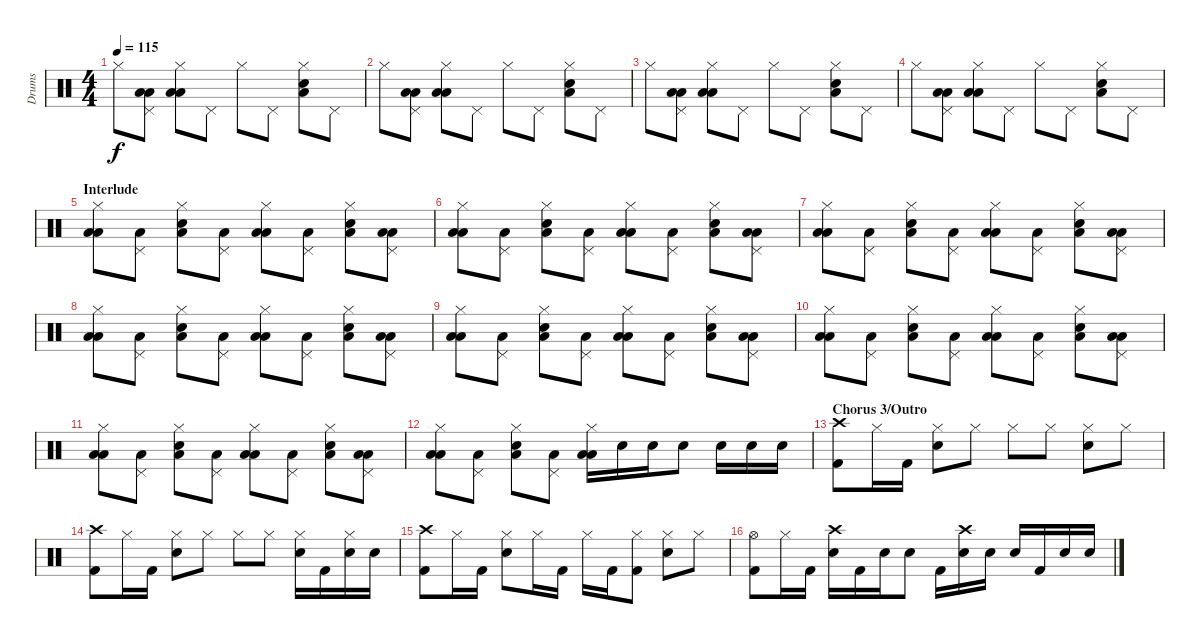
\track ("Drums" "Drums") {instrument percussion}
\staff {score}
\articulation defaults
\ts (4 4)
\tempo 115
\clef neutral
\ks c "Hi-Hat (closed)".8{dy f}
("Pedal Hi-Hat (hit)" "Low Tom (hit)" "Low Floor Tom (hit)").8 ("Hi-Hat (closed)" "Low Tom (hit)" "Low Floor Tom (hit)").8 "Pedal Hi-Hat (hit)".8 "Hi-Hat (closed)".8 "Pedal Hi-Hat (hit)".8 ("Hi-Hat (closed)" "Electric Snare (hit)" "Low Floor Tom (hit)").8 "Pedal Hi-Hat (hit)".8 |
"Hi-Hat (closed)".8 ("Pedal Hi-Hat (hit)" "Low Tom (hit)" "Low Floor Tom (hit)").8 ("Hi-Hat (closed)" "Low Tom (hit)" "Low Floor Tom (hit)").8 "Pedal Hi-Hat (hit)".8 "Hi-Hat (closed)".8 "Pedal Hi-Hat (hit)".8 ("Hi-Hat (closed)" "Electric Snare (hit)" "Low Floor Tom (hit)").8 "Pedal Hi-Hat (hit)".8 |
"Hi-Hat (closed)".8 ("Pedal Hi-Hat (hit)" "Low Tom (hit)" "Low Floor Tom (hit)").8 ("Hi-Hat (closed)" "Low Tom (hit)" "Low Floor Tom (hit)").8 "Pedal Hi-Hat (hit)".8 "Hi-Hat (closed)".8 "Pedal Hi-Hat (hit)".8 ("Hi-Hat (closed)" "Electric Snare (hit)" "Low Floor Tom (hit)").8 "Pedal Hi-Hat (hit)".8 |
"Hi-Hat (closed)".8 ("Pedal Hi-Hat (hit)" "Low Tom (hit)" "Low Floor Tom (hit)").8 ("Hi-Hat (closed)" "Low Tom (hit)" "Low Floor Tom (hit)").8 "Pedal Hi-Hat (hit)".8 "Hi-Hat (closed)".8 "Pedal Hi-Hat (hit)".8 ("Hi-Hat (closed)" "Electric Snare (hit)" "Low Floor Tom (hit)").8 "Pedal Hi-Hat (hit)".8 |
\section ("" "Interlude")
("Hi-Hat (closed)" "Low Tom (hit)" "Low Floor Tom (hit)").8 ("Pedal Hi-Hat (hit)" "Low Floor Tom (hit)").8 ("Hi-Hat (closed)" "Electric Snare (hit)" "Low Floor Tom (hit)").8 ("Pedal Hi-Hat (hit)" "Low Floor Tom (hit)").8 ("Hi-Hat (closed)" "Low Tom (hit)" "Low Floor Tom (hit)").8 ("Pedal Hi-Hat (hit)" "Low Floor Tom (hit)").8 ("Hi-Hat (closed)" "Electric Snare (hit)" "Low Floor Tom (hit)").8 ("Pedal Hi-Hat (hit)" "Low Tom (hit)" "Low Floor Tom (hit)").8 |
("Hi-Hat (closed)" "Low Tom (hit)" "Low Floor Tom (hit)").8 ("Pedal Hi-Hat (hit)" "Low Floor Tom (hit)").8 ("Hi-Hat (closed)" "Electric Snare (hit)" "Low Floor Tom (hit)").8 ("Pedal Hi-Hat (hit)" "Low Floor Tom (hit)").8 ("Hi-Hat (closed)" "Low Tom (hit)" "Low Floor Tom (hit)").8 ("Pedal Hi-Hat (hit)" "Low Floor Tom (hit)").8 ("Hi-Hat (closed)" "Electric Snare (hit)" "Low Floor Tom (hit)").8 ("Pedal Hi-Hat (hit)" "Low Tom (hit)" "Low Floor Tom (hit)").8 |
("Hi-Hat (closed)" "Low Tom (hit)" "Low Floor Tom (hit)").8 ("Pedal Hi-Hat (hit)" "Low Floor Tom (hit)").8 ("Hi-Hat (closed)" "Electric Snare (hit)" "Low Floor Tom (hit)").8 ("Pedal Hi-Hat (hit)" "Low Floor Tom (hit)").8 ("Hi-Hat (closed)" "Low Tom (hit)" "Low Floor Tom (hit)").8 ("Pedal Hi-Hat (hit)" "Low Floor Tom (hit)").8 ("Hi-Hat (closed)" "Electric Snare (hit)" "Low Floor Tom (hit)").8 ("Pedal Hi-Hat (hit)" "Low Tom (hit)" "Low Floor Tom (hit)").8 |
("Hi-Hat (closed)" "Low Tom (hit)" "Low Floor Tom (hit)").8 ("Pedal Hi-Hat (hit)" "Low Floor Tom (hit)").8 ("Hi-Hat (closed)" "Electric Snare (hit)" "Low Floor Tom (hit)").8 ("Pedal Hi-Hat (hit)" "Low Floor Tom (hit)").8 ("Hi-Hat (closed)" "Low Tom (hit)" "Low Floor Tom (hit)").8 ("Pedal Hi-Hat (hit)" "Low Floor Tom (hit)").8 ("Hi-Hat (closed)" "Electric Snare (hit)" "Low Floor Tom (hit)").8 ("Pedal Hi-Hat (hit)" "Low Tom (hit)" "Low Floor Tom (hit)").8 |
("Hi-Hat (closed)" "Low Tom (hit)" "Low Floor Tom (hit)").8 ("Pedal Hi-Hat (hit)" "Low Floor Tom (hit)").8 ("Hi-Hat (closed)" "Electric Snare (hit)" "Low Floor Tom (hit)").8 ("Pedal Hi-Hat (hit)" "Low Floor Tom (hit)").8 ("Hi-Hat (closed)" "Low Tom (hit)" "Low Floor Tom (hit)").8 ("Pedal Hi-Hat (hit)" "Low Floor Tom (hit)").8 ("Hi-Hat (closed)" "Electric Snare (hit)" "Low Floor Tom (hit)").8 ("Pedal Hi-Hat (hit)" "Low Tom (hit)" "Low Floor Tom (hit)").8 |
("Hi-Hat (closed)" "Low Tom (hit)" "Low Floor Tom (hit)").8 ("Pedal Hi-Hat (hit)" "Low Floor Tom (hit)").8 ("Hi-Hat (closed)" "Electric Snare (hit)" "Low Floor Tom (hit)").8 ("Pedal Hi-Hat (hit)" "Low Floor Tom (hit)").8 ("Hi-Hat (closed)" "Low Tom (hit)" "Low Floor Tom (hit)").8 ("Pedal Hi-Hat (hit)" "Low Floor Tom (hit)").8 ("Hi-Hat (closed)" "Electric Snare (hit)" "Low Floor Tom (hit)").8 ("Pedal Hi-Hat (hit)" "Low Tom (hit)" "Low Floor Tom (hit)").8 |
("Hi-Hat (closed)" "Low Tom (hit)" "Low Floor Tom (hit)").8 ("Pedal Hi-Hat (hit)" "Low Floor Tom (hit)").8 ("Hi-Hat (closed)" "Electric Snare (hit)" "Low Floor Tom (hit)").8 ("Pedal Hi-Hat (hit)" "Low Floor Tom (hit)").8 ("Hi-Hat (closed)" "Low Tom (hit)" "Low Floor Tom (hit)").8 ("Pedal Hi-Hat (hit)" "Low Floor Tom (hit)").8 ("Hi-Hat (closed)" "Electric Snare (hit)" "Low Floor Tom (hit)").8 ("Pedal Hi-Hat (hit)" "Low Tom (hit)" "Low Floor Tom (hit)").8 |
("Hi-Hat (closed)" "Low Tom (hit)" "Low Floor Tom (hit)").8 ("Pedal Hi-Hat (hit)" "Low Floor Tom (hit)").8 ("Hi-Hat (closed)" "Electric Snare (hit)" "Low Floor Tom (hit)").8 ("Pedal Hi-Hat (hit)" "Low Floor Tom (hit)").8 ("Hi-Hat (closed)" "Low Tom (hit)" "Low Floor Tom (hit)").16 "Electric Snare (hit)".16 "Electric Snare (hit)".16 "Electric Snare (hit)".8 "Electric Snare (hit)".16 "Electric Snare (hit)".16 "Electric Snare (hit)".16 |
\section ("" "Chorus 3/Outro")
("Crash high (hit)" "Kick (hit) 2").8 "Hi-Hat (closed)".16 "Kick (hit) 2".16 ("Hi-Hat (closed)" "Electric Snare (hit)").8 "Hi-Hat (closed)".8 "Hi-Hat (closed)".8 "Hi-Hat (closed)".8 ("Hi-Hat (closed)" "Electric Snare (hit)").8 "Hi-Hat (closed)".8 |
("Crash high (hit)" "Kick (hit) 2").8 "Hi-Hat (closed)".16 "Kick (hit) 2".16 ("Hi-Hat (closed)" "Electric Snare (hit)").8 "Hi-Hat (closed)".8 "Hi-Hat (closed)".8 "Hi-Hat (closed)".8 ("Hi-Hat (closed)" "Electric Snare (hit)").16 "Kick (hit) 2".16 ("Hi-Hat (closed)" "Electric Snare (hit)").16 "Electric Snare (hit)".16 |
("Crash high (hit)" "Kick (hit) 2").8 "Hi-Hat (closed)".16 "Kick (hit) 2".16 ("Hi-Hat (closed)" "Electric Snare (hit)").8 "Hi-Hat (closed)".16 "Kick (hit) 2".16 "Hi-Hat (closed)".16 "Kick (hit) 2".16 ("Hi-Hat (closed)" "Kick (hit) 2").8 ("Hi-Hat (closed)" "Electric Snare (hit)").8 "Hi-Hat (closed)".8 |
("Hi-Hat (open)" "Kick (hit) 2").8 "Hi-Hat (closed)".16 "Kick (hit) 2".16 ("Crash high (hit)" "Electric Snare (hit)").16 "Kick (hit) 2".16 "Electric Snare (hit)".16 "Electric Snare (hit)".8 "Kick (hit) 2".16 ("Crash high (hit)" "Electric Snare (hit)").16 "Electric Snare (hit)".16 "Electric Snare (hit)".16 "Kick (hit) 2".16 "Electric Snare (hit)".16 "Electric Snare (hit)".16
